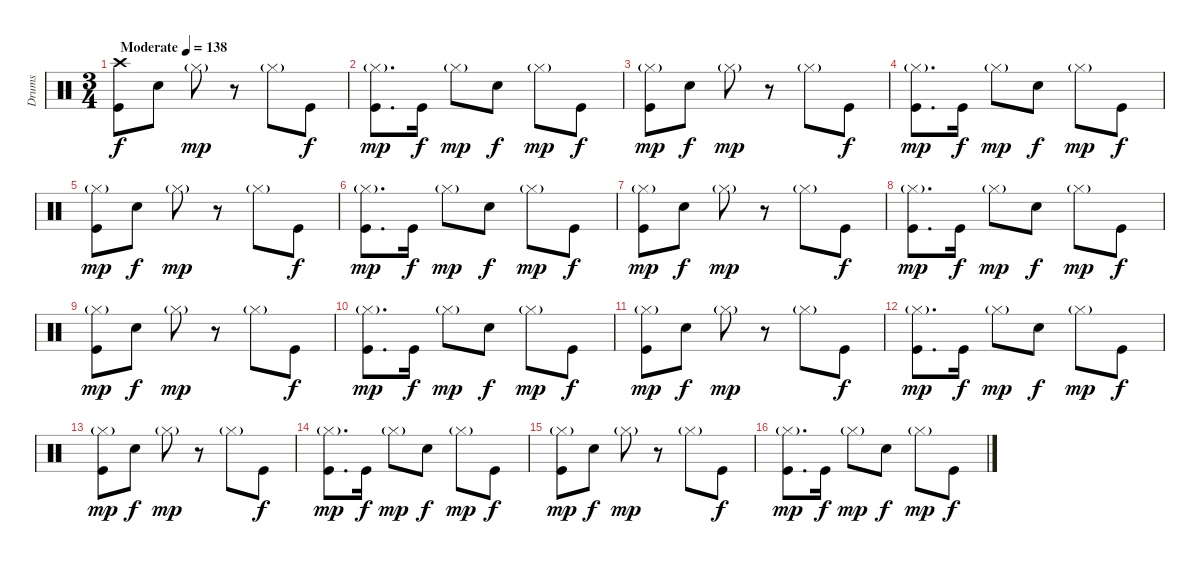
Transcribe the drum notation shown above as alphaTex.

\track ("Drums" "Drums") {instrument percussion}
\staff {score}
\articulation defaults
\ts (3 4)
\tempo (138 "Moderate")
\clef neutral
\ks c
("Crash high (hit)" "Kick (hit)").8{dy f} "Electric Snare (hit)".8 "Hi-Hat (closed)"{g}.8{dy mp} r.8 "Hi-Hat (closed)"{g}.8 "Kick (hit)".8{dy f} |
("Hi-Hat (closed)"{g} "Kick (hit)").8{d dy mp} "Kick (hit)".16{dy f} "Hi-Hat (closed)"{g}.8{dy mp} "Electric Snare (hit)".8{dy f} "Hi-Hat (closed)"{g}.8{dy mp} "Kick (hit)".8{dy f} |
("Hi-Hat (closed)"{g} "Kick (hit)").8{dy mp} "Electric Snare (hit)".8{dy f} "Hi-Hat (closed)"{g}.8{dy mp} r.8 "Hi-Hat (closed)"{g}.8 "Kick (hit)".8{dy f} |
("Hi-Hat (closed)"{g} "Kick (hit)").8{d dy mp} "Kick (hit)".16{dy f} "Hi-Hat (closed)"{g}.8{dy mp} "Electric Snare (hit)".8{dy f} "Hi-Hat (closed)"{g}.8{dy mp} "Kick (hit)".8{dy f} |
("Hi-Hat (closed)"{g} "Kick (hit)").8{dy mp} "Electric Snare (hit)".8{dy f} "Hi-Hat (closed)"{g}.8{dy mp} r.8 "Hi-Hat (closed)"{g}.8 "Kick (hit)".8{dy f} |
("Hi-Hat (closed)"{g} "Kick (hit)").8{d dy mp} "Kick (hit)".16{dy f} "Hi-Hat (closed)"{g}.8{dy mp} "Electric Snare (hit)".8{dy f} "Hi-Hat (closed)"{g}.8{dy mp} "Kick (hit)".8{dy f} |
("Hi-Hat (closed)"{g} "Kick (hit)").8{dy mp} "Electric Snare (hit)".8{dy f} "Hi-Hat (closed)"{g}.8{dy mp} r.8 "Hi-Hat (closed)"{g}.8 "Kick (hit)".8{dy f} |
("Hi-Hat (closed)"{g} "Kick (hit)").8{d dy mp} "Kick (hit)".16{dy f} "Hi-Hat (closed)"{g}.8{dy mp} "Electric Snare (hit)".8{dy f} "Hi-Hat (closed)"{g}.8{dy mp} "Kick (hit)".8{dy f} |
("Hi-Hat (closed)"{g} "Kick (hit)").8{dy mp} "Electric Snare (hit)".8{dy f} "Hi-Hat (closed)"{g}.8{dy mp} r.8 "Hi-Hat (closed)"{g}.8 "Kick (hit)".8{dy f} |
("Hi-Hat (closed)"{g} "Kick (hit)").8{d dy mp} "Kick (hit)".16{dy f} "Hi-Hat (closed)"{g}.8{dy mp} "Electric Snare (hit)".8{dy f} "Hi-Hat (closed)"{g}.8{dy mp} "Kick (hit)".8{dy f} |
("Hi-Hat (closed)"{g} "Kick (hit)").8{dy mp} "Electric Snare (hit)".8{dy f} "Hi-Hat (closed)"{g}.8{dy mp} r.8 "Hi-Hat (closed)"{g}.8 "Kick (hit)".8{dy f} |
("Hi-Hat (closed)"{g} "Kick (hit)").8{d dy mp} "Kick (hit)".16{dy f} "Hi-Hat (closed)"{g}.8{dy mp} "Electric Snare (hit)".8{dy f} "Hi-Hat (closed)"{g}.8{dy mp} "Kick (hit)".8{dy f} |
("Hi-Hat (closed)"{g} "Kick (hit)").8{dy mp} "Electric Snare (hit)".8{dy f} "Hi-Hat (closed)"{g}.8{dy mp} r.8 "Hi-Hat (closed)"{g}.8 "Kick (hit)".8{dy f} |
("Hi-Hat (closed)"{g} "Kick (hit)").8{d dy mp} "Kick (hit)".16{dy f} "Hi-Hat (closed)"{g}.8{dy mp} "Electric Snare (hit)".8{dy f} "Hi-Hat (closed)"{g}.8{dy mp} "Kick (hit)".8{dy f} |
("Hi-Hat (closed)"{g} "Kick (hit)").8{dy mp} "Electric Snare (hit)".8{dy f} "Hi-Hat (closed)"{g}.8{dy mp} r.8 "Hi-Hat (closed)"{g}.8 "Kick (hit)".8{dy f} |
("Hi-Hat (closed)"{g} "Kick (hit)").8{d dy mp} "Kick (hit)".16{dy f} "Hi-Hat (closed)"{g}.8{dy mp} "Electric Snare (hit)".8{dy f} "Hi-Hat (closed)"{g}.8{dy mp} "Kick (hit)".8{dy f}
